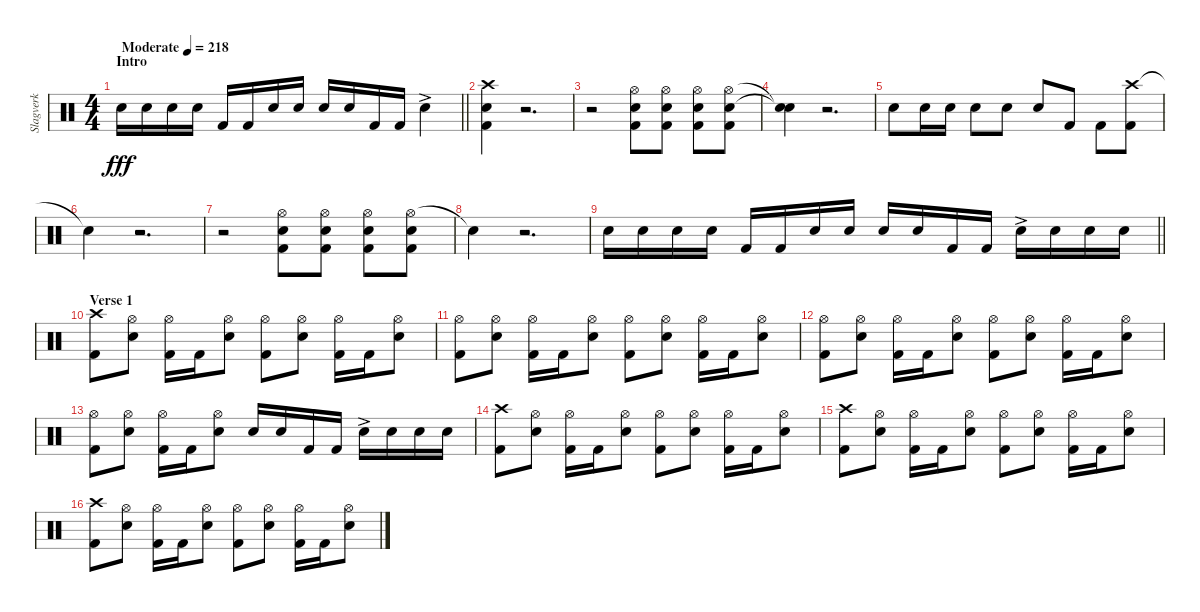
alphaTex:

\track ("Slagverk" "Slagverk") {instrument percussion}
\staff {score}
\articulation defaults
\ts (4 4)
\section ("" "Intro")
\tempo (218 "Moderate")
\clef neutral
\barLineRight lightlight
\ks c "Electric Snare (hit)".16{dy fff} "Electric Snare (hit)".16 "Electric Snare (hit)".16 "Electric Snare (hit)".16 "Kick (hit) 2".16 "Kick (hit) 2".16 "Electric Snare (hit)".16 "Electric Snare (hit)".16 "Electric Snare (hit)".16 "Electric Snare (hit)".16 "Kick (hit) 2".16 "Kick (hit) 2".16 "Electric Snare (hit)"{ac}.4
|
("Crash high (hit)" "Electric Snare (hit)" "Kick (hit) 2").4 r.2{d} |
r.2 ("Hi-Hat (open)" "Electric Snare (hit)" "Kick (hit) 2").8 ("Hi-Hat (open)" "Electric Snare (hit)" "Kick (hit) 2").8 ("Hi-Hat (open)" "Electric Snare (hit)" "Kick (hit) 2").8 ("Hi-Hat (open)" "Electric Snare (hit)" "Kick (hit) 2").8 |
("Snare (hit)"{t} "Snare (hit)"{t}).4 r.2{d} |
"Electric Snare (hit)".8 "Electric Snare (hit)".16 "Electric Snare (hit)".16 "Electric Snare (hit)".8 "Electric Snare (hit)".8 "Electric Snare (hit)".8 "Kick (hit) 2".8 "Kick (hit) 2".8 ("Crash high (hit)" "Kick (hit) 2").8 |
"Snare (hit)"{t}.4 r.2{d} |
r.2 ("Hi-Hat (open)" "Electric Snare (hit)" "Kick (hit) 2").8 ("Hi-Hat (open)" "Electric Snare (hit)" "Kick (hit) 2").8 ("Hi-Hat (open)" "Electric Snare (hit)" "Kick (hit) 2").8 ("Hi-Hat (open)" "Electric Snare (hit)" "Kick (hit) 2").8 |
"Snare (hit)"{t}.4 r.2{d} |
\barLineRight lightlight "Electric Snare (hit)".16 "Electric Snare (hit)".16 "Electric Snare (hit)".16 "Electric Snare (hit)".16 "Kick (hit) 2".16 "Kick (hit) 2".16 "Electric Snare (hit)".16 "Electric Snare (hit)".16 "Electric Snare (hit)".16 "Electric Snare (hit)".16 "Kick (hit) 2".16 "Kick (hit) 2".16 "Electric Snare (hit)"{ac}.16 "Electric Snare (hit)".16 "Electric Snare (hit)".16 "Electric Snare (hit)".16
|
\section ("" "Verse 1")
("Crash high (hit)" "Kick (hit) 2").8 ("Hi-Hat (open)" "Electric Snare (hit)").8 ("Hi-Hat (open)" "Kick (hit) 2").16 "Kick (hit) 2".16 ("Hi-Hat (open)" "Electric Snare (hit)").8 ("Hi-Hat (open)" "Kick (hit) 2").8 ("Hi-Hat (open)" "Electric Snare (hit)").8 ("Hi-Hat (open)" "Kick (hit) 2").16 "Kick (hit) 2".16 ("Hi-Hat (open)" "Electric Snare (hit)").8 |
("Hi-Hat (open)" "Kick (hit) 2").8 ("Hi-Hat (open)" "Electric Snare (hit)").8 ("Hi-Hat (open)" "Kick (hit) 2").16 "Kick (hit) 2".16 ("Hi-Hat (open)" "Electric Snare (hit)").8 ("Hi-Hat (open)" "Kick (hit) 2").8 ("Hi-Hat (open)" "Electric Snare (hit)").8 ("Hi-Hat (open)" "Kick (hit) 2").16 "Kick (hit) 2".16 ("Hi-Hat (open)" "Electric Snare (hit)").8 |
("Hi-Hat (open)" "Kick (hit) 2").8 ("Hi-Hat (open)" "Electric Snare (hit)").8 ("Hi-Hat (open)" "Kick (hit) 2").16 "Kick (hit) 2".16 ("Hi-Hat (open)" "Electric Snare (hit)").8 ("Hi-Hat (open)" "Kick (hit) 2").8 ("Hi-Hat (open)" "Electric Snare (hit)").8 ("Hi-Hat (open)" "Kick (hit) 2").16 "Kick (hit) 2".16 ("Hi-Hat (open)" "Electric Snare (hit)").8 |
("Hi-Hat (open)" "Kick (hit) 2").8 ("Hi-Hat (open)" "Electric Snare (hit)").8 ("Hi-Hat (open)" "Kick (hit) 2").16 "Kick (hit) 2".16 ("Hi-Hat (open)" "Electric Snare (hit)").8 "Electric Snare (hit)".16 "Electric Snare (hit)".16 "Kick (hit) 2".16 "Kick (hit) 2".16 "Electric Snare (hit)"{ac}.16 "Electric Snare (hit)".16 "Electric Snare (hit)".16 "Electric Snare (hit)".16 |
("Crash high (hit)" "Kick (hit) 2").8 ("Hi-Hat (open)" "Electric Snare (hit)").8 ("Hi-Hat (open)" "Kick (hit) 2").16 "Kick (hit) 2".16 ("Hi-Hat (open)" "Electric Snare (hit)").8 ("Hi-Hat (open)" "Kick (hit) 2").8 ("Hi-Hat (open)" "Electric Snare (hit)").8 ("Hi-Hat (open)" "Kick (hit) 2").16 "Kick (hit) 2".16 ("Hi-Hat (open)" "Electric Snare (hit)").8 |
("Crash high (hit)" "Kick (hit) 2").8 ("Hi-Hat (open)" "Electric Snare (hit)").8 ("Hi-Hat (open)" "Kick (hit) 2").16 "Kick (hit) 2".16 ("Hi-Hat (open)" "Electric Snare (hit)").8 ("Hi-Hat (open)" "Kick (hit) 2").8 ("Hi-Hat (open)" "Electric Snare (hit)").8 ("Hi-Hat (open)" "Kick (hit) 2").16 "Kick (hit) 2".16 ("Hi-Hat (open)" "Electric Snare (hit)").8 |
("Crash high (hit)" "Kick (hit) 2").8 ("Hi-Hat (open)" "Electric Snare (hit)").8 ("Hi-Hat (open)" "Kick (hit) 2").16 "Kick (hit) 2".16 ("Hi-Hat (open)" "Electric Snare (hit)").8 ("Hi-Hat (open)" "Kick (hit) 2").8 ("Hi-Hat (open)" "Electric Snare (hit)").8 ("Hi-Hat (open)" "Kick (hit) 2").16 "Kick (hit) 2".16 ("Hi-Hat (open)" "Electric Snare (hit)").8
